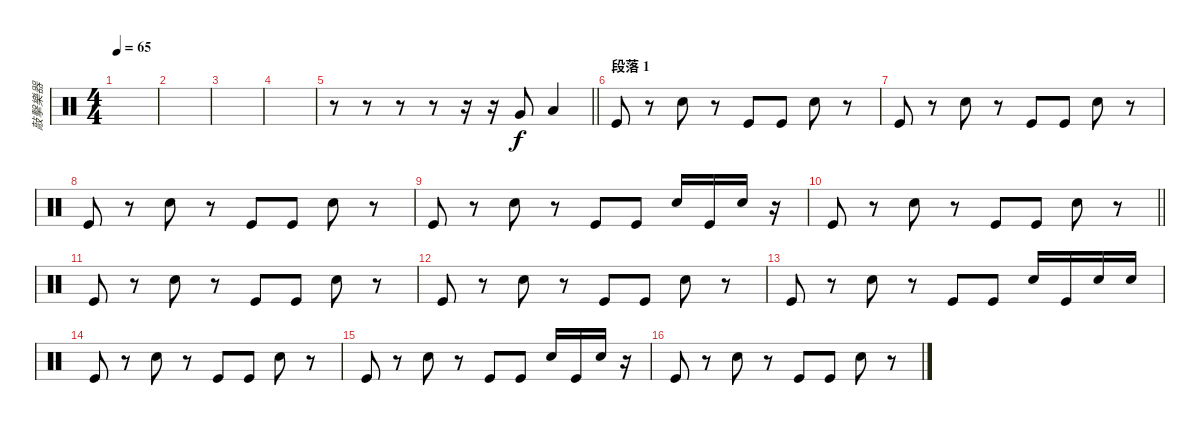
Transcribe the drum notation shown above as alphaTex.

\track ("敲擊樂器" "敲擊樂器") {instrument percussion}
\staff {score}
\articulation defaults
\ts (4 4)
\tempo 65
\clef neutral
\ks c
|
|
|
|
\barLineRight lightlight
r.8 r.8 r.8 r.8 r.16 r.16 "Very Low Tom (hit)".8 "Low Floor Tom (hit)".4 |
\section ("" "段落 1")
"Kick (hit)".8{dy f} r.8 "Electric Snare (hit)".8 r.8 "Kick (hit)".8 "Kick (hit)".8 "Electric Snare (hit)".8 r.8 |
"Kick (hit)".8 r.8 "Electric Snare (hit)".8 r.8 "Kick (hit)".8 "Kick (hit)".8 "Electric Snare (hit)".8 r.8 |
"Kick (hit)".8 r.8 "Electric Snare (hit)".8 r.8 "Kick (hit)".8 "Kick (hit)".8 "Electric Snare (hit)".8 r.8 |
"Kick (hit)".8 r.8 "Electric Snare (hit)".8 r.8 "Kick (hit)".8 "Kick (hit)".8 "Electric Snare (hit)".16 "Kick (hit)".16 "Electric Snare (hit)".16 r.16 |
\barLineRight lightlight "Kick (hit)".8
r.8 "Electric Snare (hit)".8 r.8 "Kick (hit)".8 "Kick (hit)".8 "Electric Snare (hit)".8 r.8 |
"Kick (hit)".8 r.8 "Electric Snare (hit)".8 r.8 "Kick (hit)".8 "Kick (hit)".8 "Electric Snare (hit)".8 r.8 |
"Kick (hit)".8 r.8 "Electric Snare (hit)".8 r.8 "Kick (hit)".8 "Kick (hit)".8 "Electric Snare (hit)".8 r.8 |
"Kick (hit)".8 r.8 "Electric Snare (hit)".8 r.8 "Kick (hit)".8 "Kick (hit)".8 "Electric Snare (hit)".16 "Kick (hit)".16 "Electric Snare (hit)".16 "Electric Snare (hit)".16 |
"Kick (hit)".8 r.8 "Electric Snare (hit)".8 r.8 "Kick (hit)".8 "Kick (hit)".8 "Electric Snare (hit)".8 r.8 |
"Kick (hit)".8 r.8 "Electric Snare (hit)".8 r.8 "Kick (hit)".8 "Kick (hit)".8 "Electric Snare (hit)".16 "Kick (hit)".16 "Electric Snare (hit)".16 r.16 |
"Kick (hit)".8 r.8 "Electric Snare (hit)".8 r.8 "Kick (hit)".8 "Kick (hit)".8 "Electric Snare (hit)".8 r.8
